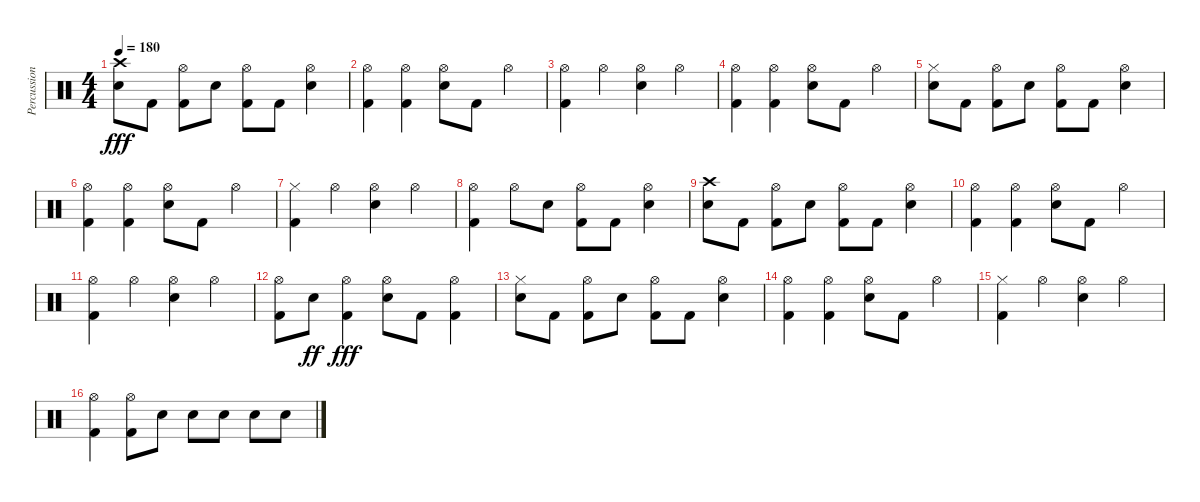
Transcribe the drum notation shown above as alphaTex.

\track ("Percussion" "Percussion") {instrument percussion}
\staff {score}
\articulation defaults
\ts (4 4)
\tempo 180
\clef neutral
\ks c
("Crash high (hit)" "Electric Snare (hit)").8{dy fff} "Kick (hit) 2".8 ("Hi-Hat (open)" "Kick (hit) 2").8 "Electric Snare (hit)".8 ("Hi-Hat (open)" "Kick (hit) 2").8 "Kick (hit) 2".8 ("Hi-Hat (open)" "Electric Snare (hit)").4 |
("Hi-Hat (open)" "Kick (hit) 2").4 ("Hi-Hat (open)" "Kick (hit) 2").4 ("Hi-Hat (open)" "Electric Snare (hit)").8 "Kick (hit) 2".8 "Hi-Hat (open)".4 |
("Hi-Hat (open)" "Kick (hit) 2").4 "Hi-Hat (open)".4 ("Hi-Hat (open)" "Electric Snare (hit)").4 "Hi-Hat (open)".4 |
("Hi-Hat (open)" "Kick (hit) 2").4 ("Hi-Hat (open)" "Kick (hit) 2").4 ("Hi-Hat (open)" "Electric Snare (hit)").8 "Kick (hit) 2".8 "Hi-Hat (open)".4 |
("Hi-Hat (closed)" "Electric Snare (hit)").8 "Kick (hit) 2".8 ("Hi-Hat (open)" "Kick (hit) 2").8 "Electric Snare (hit)".8 ("Hi-Hat (open)" "Kick (hit) 2").8 "Kick (hit) 2".8 ("Hi-Hat (open)" "Electric Snare (hit)").4 |
("Hi-Hat (open)" "Kick (hit) 2").4 ("Hi-Hat (open)" "Kick (hit) 2").4 ("Hi-Hat (open)" "Electric Snare (hit)").8 "Kick (hit) 2".8 "Hi-Hat (open)".4 |
("Hi-Hat (closed)" "Kick (hit) 2").4 "Hi-Hat (open)".4 ("Hi-Hat (open)" "Electric Snare (hit)").4 "Hi-Hat (open)".4 |
("Hi-Hat (open)" "Kick (hit) 2").4 "Hi-Hat (open)".8 "Electric Snare (hit)".8 ("Hi-Hat (open)" "Kick (hit) 2").8 "Kick (hit) 2".8 ("Hi-Hat (open)" "Electric Snare (hit)").4 |
("Crash high (hit)" "Electric Snare (hit)").8 "Kick (hit) 2".8 ("Hi-Hat (open)" "Kick (hit) 2").8 "Electric Snare (hit)".8 ("Hi-Hat (open)" "Kick (hit) 2").8 "Kick (hit) 2".8 ("Hi-Hat (open)" "Electric Snare (hit)").4 |
("Hi-Hat (open)" "Kick (hit) 2").4 ("Hi-Hat (open)" "Kick (hit) 2").4 ("Hi-Hat (open)" "Electric Snare (hit)").8 "Kick (hit) 2".8 "Hi-Hat (open)".4 |
("Hi-Hat (open)" "Kick (hit) 2").4 "Hi-Hat (open)".4 ("Hi-Hat (open)" "Electric Snare (hit)").4 "Hi-Hat (open)".4 |
("Hi-Hat (open)" "Kick (hit) 2").8 "Electric Snare (hit)".8{dy ff} ("Hi-Hat (open)" "Kick (hit) 2").4{dy fff} ("Hi-Hat (open)" "Electric Snare (hit)").8 "Kick (hit) 2".8 ("Hi-Hat (open)" "Kick (hit) 2").4 |
("Hi-Hat (closed)" "Electric Snare (hit)").8 "Kick (hit) 2".8 ("Hi-Hat (open)" "Kick (hit) 2").8 "Electric Snare (hit)".8 ("Hi-Hat (open)" "Kick (hit) 2").8 "Kick (hit) 2".8 ("Hi-Hat (open)" "Electric Snare (hit)").4 |
("Hi-Hat (open)" "Kick (hit) 2").4 ("Hi-Hat (open)" "Kick (hit) 2").4 ("Hi-Hat (open)" "Electric Snare (hit)").8 "Kick (hit) 2".8 "Hi-Hat (open)".4 |
("Hi-Hat (closed)" "Kick (hit) 2").4 "Hi-Hat (open)".4 ("Hi-Hat (open)" "Electric Snare (hit)").4 "Hi-Hat (open)".4 |
("Hi-Hat (open)" "Kick (hit) 2").4 ("Hi-Hat (open)" "Kick (hit) 2").8 "Electric Snare (hit)".8 "Electric Snare (hit)".8 "Electric Snare (hit)".8 "Electric Snare (hit)".8 "Electric Snare (hit)".8
